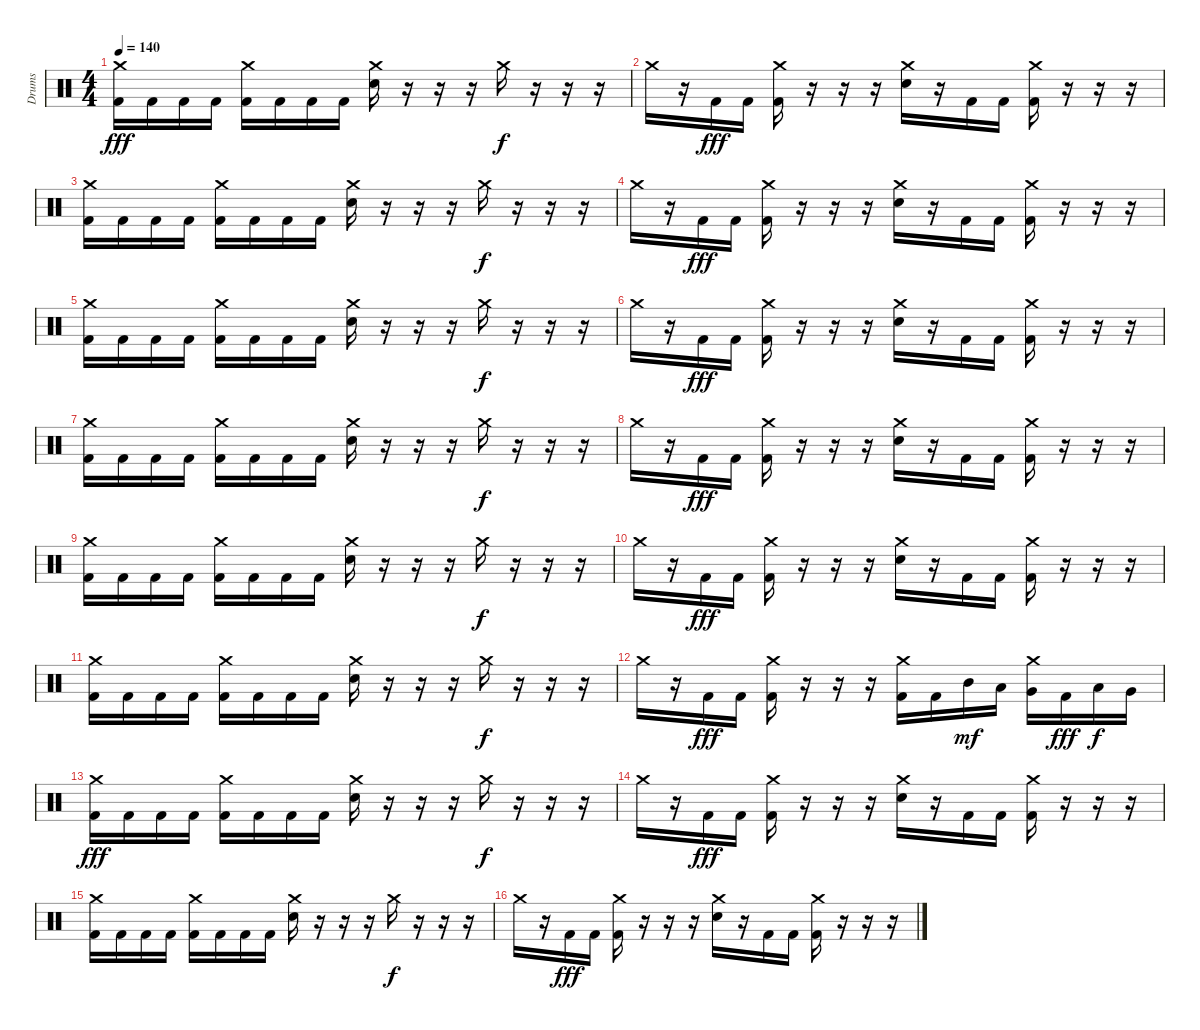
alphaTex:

\track ("Drums" "Drums") {instrument percussion}
\staff {score}
\articulation defaults
\ts (4 4)
\tempo 140
\clef neutral
\ks c
("Crash medium (hit)" "Kick (hit) 2").16{dy fff} "Kick (hit) 2".16 "Kick (hit) 2".16 "Kick (hit) 2".16 ("Crash medium (hit)" "Kick (hit) 2").16 "Kick (hit) 2".16 "Kick (hit) 2".16 "Kick (hit) 2".16 ("Crash medium (hit)" "Electric Snare (hit)").16 r.16 r.16 r.16 "Crash medium (hit)".16{dy f} r.16 r.16 r.16 |
"Crash medium (hit)".16 r.16 "Kick (hit) 2".16{dy fff} "Kick (hit) 2".16 ("Crash medium (hit)" "Kick (hit) 2").16 r.16 r.16 r.16 ("Crash medium (hit)" "Electric Snare (hit)").16 r.16 "Kick (hit) 2".16 "Kick (hit) 2".16 ("Crash medium (hit)" "Kick (hit) 2").16 r.16 r.16 r.16 |
("Crash medium (hit)" "Kick (hit) 2").16 "Kick (hit) 2".16 "Kick (hit) 2".16 "Kick (hit) 2".16 ("Crash medium (hit)" "Kick (hit) 2").16 "Kick (hit) 2".16 "Kick (hit) 2".16 "Kick (hit) 2".16 ("Crash medium (hit)" "Electric Snare (hit)").16 r.16 r.16 r.16 "Crash medium (hit)".16{dy f} r.16 r.16 r.16 |
"Crash medium (hit)".16 r.16 "Kick (hit) 2".16{dy fff} "Kick (hit) 2".16 ("Crash medium (hit)" "Kick (hit) 2").16 r.16 r.16 r.16 ("Crash medium (hit)" "Electric Snare (hit)").16 r.16 "Kick (hit) 2".16 "Kick (hit) 2".16 ("Crash medium (hit)" "Kick (hit) 2").16 r.16 r.16 r.16 |
("Crash medium (hit)" "Kick (hit) 2").16 "Kick (hit) 2".16 "Kick (hit) 2".16 "Kick (hit) 2".16 ("Crash medium (hit)" "Kick (hit) 2").16 "Kick (hit) 2".16 "Kick (hit) 2".16 "Kick (hit) 2".16 ("Crash medium (hit)" "Electric Snare (hit)").16 r.16 r.16 r.16 "Crash medium (hit)".16{dy f} r.16 r.16 r.16 |
"Crash medium (hit)".16 r.16 "Kick (hit) 2".16{dy fff} "Kick (hit) 2".16 ("Crash medium (hit)" "Kick (hit) 2").16 r.16 r.16 r.16 ("Crash medium (hit)" "Electric Snare (hit)").16 r.16 "Kick (hit) 2".16 "Kick (hit) 2".16 ("Crash medium (hit)" "Kick (hit) 2").16 r.16 r.16 r.16 |
("Crash medium (hit)" "Kick (hit) 2").16 "Kick (hit) 2".16 "Kick (hit) 2".16 "Kick (hit) 2".16 ("Crash medium (hit)" "Kick (hit) 2").16 "Kick (hit) 2".16 "Kick (hit) 2".16 "Kick (hit) 2".16 ("Crash medium (hit)" "Electric Snare (hit)").16 r.16 r.16 r.16 "Crash medium (hit)".16{dy f} r.16 r.16 r.16 |
"Crash medium (hit)".16 r.16 "Kick (hit) 2".16{dy fff} "Kick (hit) 2".16 ("Crash medium (hit)" "Kick (hit) 2").16 r.16 r.16 r.16 ("Crash medium (hit)" "Electric Snare (hit)").16 r.16 "Kick (hit) 2".16 "Kick (hit) 2".16 ("Crash medium (hit)" "Kick (hit) 2").16 r.16 r.16 r.16 |
("Crash medium (hit)" "Kick (hit) 2").16 "Kick (hit) 2".16 "Kick (hit) 2".16 "Kick (hit) 2".16 ("Crash medium (hit)" "Kick (hit) 2").16 "Kick (hit) 2".16 "Kick (hit) 2".16 "Kick (hit) 2".16 ("Crash medium (hit)" "Electric Snare (hit)").16 r.16 r.16 r.16 "Crash medium (hit)".16{dy f} r.16 r.16 r.16 |
"Crash medium (hit)".16 r.16 "Kick (hit) 2".16{dy fff} "Kick (hit) 2".16 ("Crash medium (hit)" "Kick (hit) 2").16 r.16 r.16 r.16 ("Crash medium (hit)" "Electric Snare (hit)").16 r.16 "Kick (hit) 2".16 "Kick (hit) 2".16 ("Crash medium (hit)" "Kick (hit) 2").16 r.16 r.16 r.16 |
("Crash medium (hit)" "Kick (hit) 2").16 "Kick (hit) 2".16 "Kick (hit) 2".16 "Kick (hit) 2".16 ("Crash medium (hit)" "Kick (hit) 2").16 "Kick (hit) 2".16 "Kick (hit) 2".16 "Kick (hit) 2".16 ("Crash medium (hit)" "Electric Snare (hit)").16 r.16 r.16 r.16 "Crash medium (hit)".16{dy f} r.16 r.16 r.16 |
"Crash medium (hit)".16 r.16 "Kick (hit) 2".16{dy fff} "Kick (hit) 2".16 ("Crash medium (hit)" "Kick (hit) 2").16 r.16 r.16 r.16 ("Crash medium (hit)" "Kick (hit) 2").16 "Kick (hit) 2".16 "Mid Tom (hit)".16{dy mf} "Low Tom (hit)".16 ("Crash medium (hit)" "Very Low Tom (hit)").16 "Kick (hit) 2".16{dy fff} "Low Tom (hit)".16{dy f} "Very Low Tom (hit)".16 |
("Crash medium (hit)" "Kick (hit) 2").16{dy fff} "Kick (hit) 2".16 "Kick (hit) 2".16 "Kick (hit) 2".16 ("Crash medium (hit)" "Kick (hit) 2").16 "Kick (hit) 2".16 "Kick (hit) 2".16 "Kick (hit) 2".16 ("Crash medium (hit)" "Electric Snare (hit)").16 r.16 r.16 r.16 "Crash medium (hit)".16{dy f} r.16 r.16 r.16 |
"Crash medium (hit)".16 r.16 "Kick (hit) 2".16{dy fff} "Kick (hit) 2".16 ("Crash medium (hit)" "Kick (hit) 2").16 r.16 r.16 r.16 ("Crash medium (hit)" "Electric Snare (hit)").16 r.16 "Kick (hit) 2".16 "Kick (hit) 2".16 ("Crash medium (hit)" "Kick (hit) 2").16 r.16 r.16 r.16 |
("Crash medium (hit)" "Kick (hit) 2").16 "Kick (hit) 2".16 "Kick (hit) 2".16 "Kick (hit) 2".16 ("Crash medium (hit)" "Kick (hit) 2").16 "Kick (hit) 2".16 "Kick (hit) 2".16 "Kick (hit) 2".16 ("Crash medium (hit)" "Electric Snare (hit)").16 r.16 r.16 r.16 "Crash medium (hit)".16{dy f} r.16 r.16 r.16 |
"Crash medium (hit)".16 r.16 "Kick (hit) 2".16{dy fff} "Kick (hit) 2".16 ("Crash medium (hit)" "Kick (hit) 2").16 r.16 r.16 r.16 ("Crash medium (hit)" "Electric Snare (hit)").16 r.16 "Kick (hit) 2".16 "Kick (hit) 2".16 ("Crash medium (hit)" "Kick (hit) 2").16 r.16 r.16 r.16
